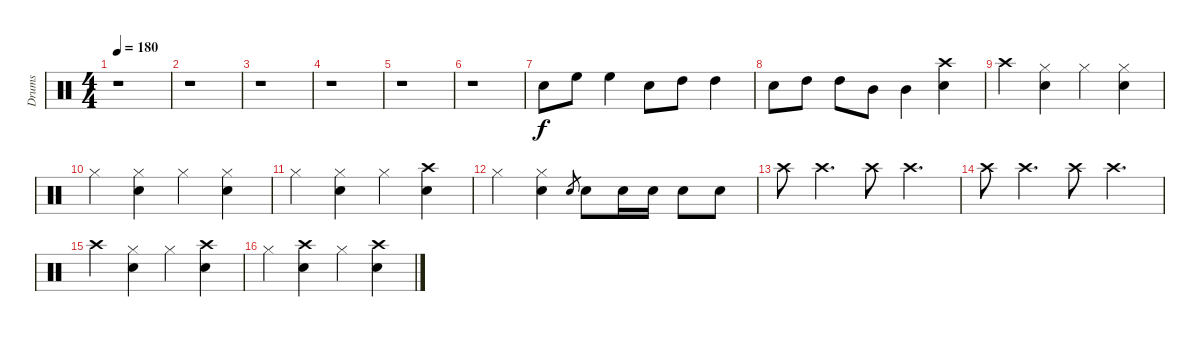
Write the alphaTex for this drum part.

\track ("Drums" "Drums") {instrument percussion}
\staff {score}
\articulation defaults
\ts (4 4)
\tempo 180
\clef neutral
\ks c
r.1{dy f} |
r.1 |
r.1 |
r.1 |
r.1 |
r.1 |
"Snare (hit) 2".8 "High Floor Tom (hit)".8 "High Floor Tom (hit)".4 "Snare (hit) 2".8 "High Tom (hit)".8 "High Tom (hit)".4 |
"Snare (hit) 2".8 "High Tom (hit)".8 "High Tom (hit)".8 "Mid Tom (hit)".8 "Mid Tom (hit)".4 ("Crash high (hit)" "Snare (hit) 2").4 |
"Crash high (hit)".4 ("Hi-Hat (closed)" "Snare (hit) 2").4 "Hi-Hat (closed)".4 ("Hi-Hat (closed)" "Snare (hit) 2").4 |
"Hi-Hat (closed)".4 ("Hi-Hat (closed)" "Snare (hit) 2").4 "Hi-Hat (closed)".4 ("Hi-Hat (closed)" "Snare (hit) 2").4 |
"Hi-Hat (closed)".4 ("Hi-Hat (closed)" "Snare (hit) 2").4 "Hi-Hat (closed)".4 ("Crash high (hit)" "Snare (hit) 2").4 |
"Hi-Hat (closed)".4 ("Hi-Hat (closed)" "Snare (hit) 2").4 "Snare (hit) 2".8{gr} "Snare (hit) 2".8 "Snare (hit) 2".16 "Snare (hit) 2".16 "Snare (hit) 2".8 "Snare (hit) 2".8 |
"Crash high (hit)".8 "Crash high (hit)".4{d} "Crash high (hit)".8 "Crash high (hit)".4{d} |
"Crash high (hit)".8 "Crash high (hit)".4{d} "Crash high (hit)".8 "Crash high (hit)".4{d} |
"Crash high (hit)".4 ("Hi-Hat (closed)" "Snare (hit) 2").4 "Hi-Hat (closed)".4 ("Crash high (hit)" "Snare (hit) 2").4 |
"Hi-Hat (closed)".4 ("Crash high (hit)" "Snare (hit) 2").4 "Hi-Hat (closed)".4 ("Crash high (hit)" "Snare (hit) 2").4
